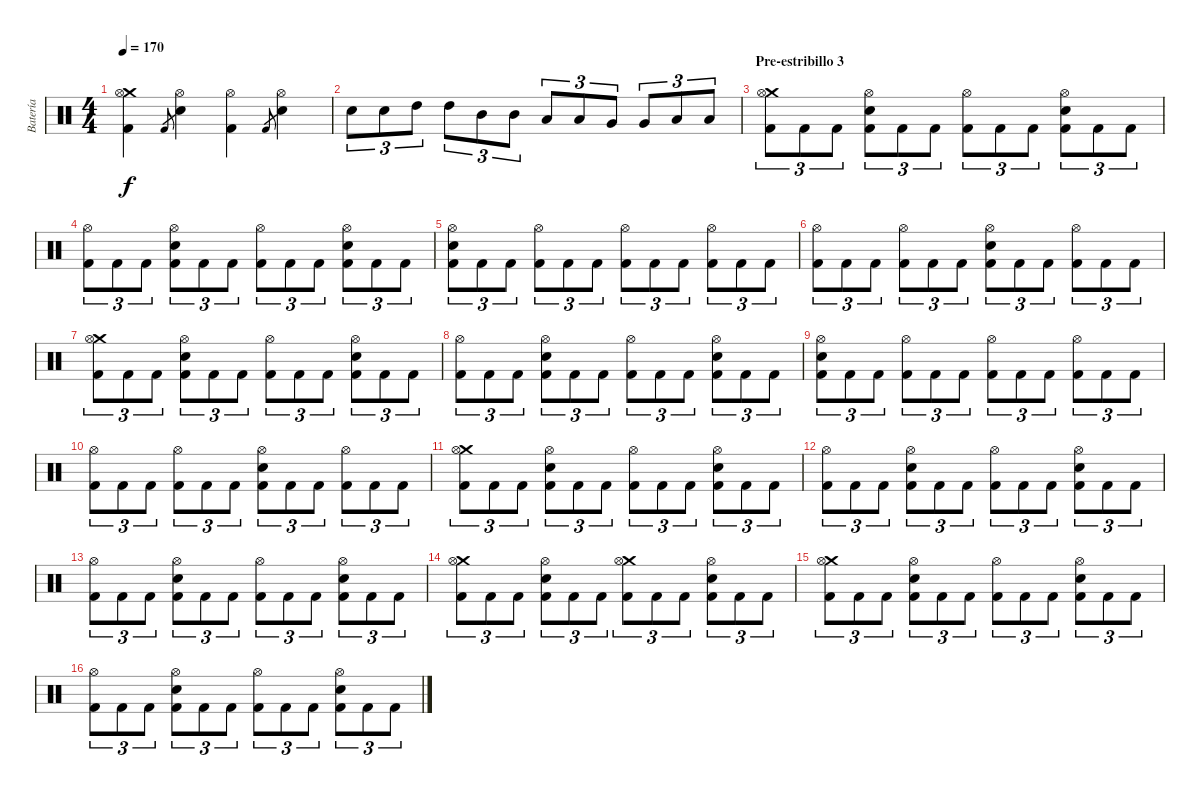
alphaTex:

\track ("Batería" "Batería") {instrument percussion}
\staff {score}
\articulation defaults
\ts (4 4)
\tempo 170
\clef neutral
\ks c
("Crash medium (hit)" "Hi-Hat (open)" "Kick (hit) 2").4{dy f} "Kick (hit) 2".8{gr} ("Hi-Hat (open)" "Snare (hit) 2").4 ("Hi-Hat (open)" "Kick (hit) 2").4 "Kick (hit) 2".8{gr} ("Hi-Hat (open)" "Snare (hit) 2").4 |
"Snare (hit) 2".8{tu (3 2)} "Snare (hit) 2".8{tu (3 2)} "High Tom (hit)".8{tu (3 2)} "High Tom (hit)".8{tu (3 2)} "Mid Tom (hit)".8{tu (3 2)} "Mid Tom (hit)".8{tu (3 2)} "Low Tom (hit)".8{tu (3 2)} "Low Tom (hit)".8{tu (3 2)} "Very Low Tom (hit)".8{tu (3 2)} "Very Low Tom (hit)".8{tu (3 2)} "Low Floor Tom (hit)".8{tu (3 2)} "Low Floor Tom (hit)".8{tu (3 2)} |
\section ("" "Pre-estribillo 3")
("Crash medium (hit)" "Hi-Hat (open)" "Kick (hit) 2").8{tu (3 2)} "Kick (hit) 2".8{tu (3 2)} "Kick (hit) 2".8{tu (3 2)} ("Hi-Hat (open)" "Snare (hit) 2" "Kick (hit) 2").8{tu (3 2)} "Kick (hit) 2".8{tu (3 2)} "Kick (hit) 2".8{tu (3 2)} ("Hi-Hat (open)" "Kick (hit) 2").8{tu (3 2)} "Kick (hit) 2".8{tu (3 2)} "Kick (hit) 2".8{tu (3 2)} ("Hi-Hat (open)" "Snare (hit) 2" "Kick (hit) 2").8{tu (3 2)} "Kick (hit) 2".8{tu (3 2)} "Kick (hit) 2".8{tu (3 2)} |
("Hi-Hat (open)" "Kick (hit) 2").8{tu (3 2)} "Kick (hit) 2".8{tu (3 2)} "Kick (hit) 2".8{tu (3 2)} ("Hi-Hat (open)" "Snare (hit) 2" "Kick (hit) 2").8{tu (3 2)} "Kick (hit) 2".8{tu (3 2)} "Kick (hit) 2".8{tu (3 2)} ("Hi-Hat (open)" "Kick (hit) 2").8{tu (3 2)} "Kick (hit) 2".8{tu (3 2)} "Kick (hit) 2".8{tu (3 2)} ("Hi-Hat (open)" "Snare (hit) 2" "Kick (hit) 2").8{tu (3 2)} "Kick (hit) 2".8{tu (3 2)} "Kick (hit) 2".8{tu (3 2)} |
("Hi-Hat (open)" "Snare (hit) 2" "Kick (hit) 2").8{tu (3 2)} "Kick (hit) 2".8{tu (3 2)} "Kick (hit) 2".8{tu (3 2)} ("Hi-Hat (open)" "Kick (hit) 2").8{tu (3 2)} "Kick (hit) 2".8{tu (3 2)} "Kick (hit) 2".8{tu (3 2)} ("Hi-Hat (open)" "Kick (hit) 2").8{tu (3 2)} "Kick (hit) 2".8{tu (3 2)} "Kick (hit) 2".8{tu (3 2)} ("Hi-Hat (open)" "Kick (hit) 2").8{tu (3 2)} "Kick (hit) 2".8{tu (3 2)} "Kick (hit) 2".8{tu (3 2)} |
("Hi-Hat (open)" "Kick (hit) 2").8{tu (3 2)} "Kick (hit) 2".8{tu (3 2)} "Kick (hit) 2".8{tu (3 2)} ("Hi-Hat (open)" "Kick (hit) 2").8{tu (3 2)} "Kick (hit) 2".8{tu (3 2)} "Kick (hit) 2".8{tu (3 2)} ("Hi-Hat (open)" "Snare (hit) 2" "Kick (hit) 2").8{tu (3 2)} "Kick (hit) 2".8{tu (3 2)} "Kick (hit) 2".8{tu (3 2)} ("Hi-Hat (open)" "Kick (hit) 2").8{tu (3 2)} "Kick (hit) 2".8{tu (3 2)} "Kick (hit) 2".8{tu (3 2)} |
("Crash medium (hit)" "Hi-Hat (open)" "Kick (hit) 2").8{tu (3 2)} "Kick (hit) 2".8{tu (3 2)} "Kick (hit) 2".8{tu (3 2)} ("Hi-Hat (open)" "Snare (hit) 2" "Kick (hit) 2").8{tu (3 2)} "Kick (hit) 2".8{tu (3 2)} "Kick (hit) 2".8{tu (3 2)} ("Hi-Hat (open)" "Kick (hit) 2").8{tu (3 2)} "Kick (hit) 2".8{tu (3 2)} "Kick (hit) 2".8{tu (3 2)} ("Hi-Hat (open)" "Snare (hit) 2" "Kick (hit) 2").8{tu (3 2)} "Kick (hit) 2".8{tu (3 2)} "Kick (hit) 2".8{tu (3 2)} |
("Hi-Hat (open)" "Kick (hit) 2").8{tu (3 2)} "Kick (hit) 2".8{tu (3 2)} "Kick (hit) 2".8{tu (3 2)} ("Hi-Hat (open)" "Snare (hit) 2" "Kick (hit) 2").8{tu (3 2)} "Kick (hit) 2".8{tu (3 2)} "Kick (hit) 2".8{tu (3 2)} ("Hi-Hat (open)" "Kick (hit) 2").8{tu (3 2)} "Kick (hit) 2".8{tu (3 2)} "Kick (hit) 2".8{tu (3 2)} ("Hi-Hat (open)" "Snare (hit) 2" "Kick (hit) 2").8{tu (3 2)} "Kick (hit) 2".8{tu (3 2)} "Kick (hit) 2".8{tu (3 2)} |
("Hi-Hat (open)" "Snare (hit) 2" "Kick (hit) 2").8{tu (3 2)} "Kick (hit) 2".8{tu (3 2)} "Kick (hit) 2".8{tu (3 2)} ("Hi-Hat (open)" "Kick (hit) 2").8{tu (3 2)} "Kick (hit) 2".8{tu (3 2)} "Kick (hit) 2".8{tu (3 2)} ("Hi-Hat (open)" "Kick (hit) 2").8{tu (3 2)} "Kick (hit) 2".8{tu (3 2)} "Kick (hit) 2".8{tu (3 2)} ("Hi-Hat (open)" "Kick (hit) 2").8{tu (3 2)} "Kick (hit) 2".8{tu (3 2)} "Kick (hit) 2".8{tu (3 2)} |
("Hi-Hat (open)" "Kick (hit) 2").8{tu (3 2)} "Kick (hit) 2".8{tu (3 2)} "Kick (hit) 2".8{tu (3 2)} ("Hi-Hat (open)" "Kick (hit) 2").8{tu (3 2)} "Kick (hit) 2".8{tu (3 2)} "Kick (hit) 2".8{tu (3 2)} ("Hi-Hat (open)" "Snare (hit) 2" "Kick (hit) 2").8{tu (3 2)} "Kick (hit) 2".8{tu (3 2)} "Kick (hit) 2".8{tu (3 2)} ("Hi-Hat (open)" "Kick (hit) 2").8{tu (3 2)} "Kick (hit) 2".8{tu (3 2)} "Kick (hit) 2".8{tu (3 2)} |
("Crash medium (hit)" "Hi-Hat (open)" "Kick (hit) 2").8{tu (3 2)} "Kick (hit) 2".8{tu (3 2)} "Kick (hit) 2".8{tu (3 2)} ("Hi-Hat (open)" "Snare (hit) 2" "Kick (hit) 2").8{tu (3 2)} "Kick (hit) 2".8{tu (3 2)} "Kick (hit) 2".8{tu (3 2)} ("Hi-Hat (open)" "Kick (hit) 2").8{tu (3 2)} "Kick (hit) 2".8{tu (3 2)} "Kick (hit) 2".8{tu (3 2)} ("Hi-Hat (open)" "Snare (hit) 2" "Kick (hit) 2").8{tu (3 2)} "Kick (hit) 2".8{tu (3 2)} "Kick (hit) 2".8{tu (3 2)} |
("Hi-Hat (open)" "Kick (hit) 2").8{tu (3 2)} "Kick (hit) 2".8{tu (3 2)} "Kick (hit) 2".8{tu (3 2)} ("Hi-Hat (open)" "Snare (hit) 2" "Kick (hit) 2").8{tu (3 2)} "Kick (hit) 2".8{tu (3 2)} "Kick (hit) 2".8{tu (3 2)} ("Hi-Hat (open)" "Kick (hit) 2").8{tu (3 2)} "Kick (hit) 2".8{tu (3 2)} "Kick (hit) 2".8{tu (3 2)} ("Hi-Hat (open)" "Snare (hit) 2" "Kick (hit) 2").8{tu (3 2)} "Kick (hit) 2".8{tu (3 2)} "Kick (hit) 2".8{tu (3 2)} |
("Hi-Hat (open)" "Kick (hit) 2").8{tu (3 2)} "Kick (hit) 2".8{tu (3 2)} "Kick (hit) 2".8{tu (3 2)} ("Hi-Hat (open)" "Snare (hit) 2" "Kick (hit) 2").8{tu (3 2)} "Kick (hit) 2".8{tu (3 2)} "Kick (hit) 2".8{tu (3 2)} ("Hi-Hat (open)" "Kick (hit) 2").8{tu (3 2)} "Kick (hit) 2".8{tu (3 2)} "Kick (hit) 2".8{tu (3 2)} ("Hi-Hat (open)" "Snare (hit) 2" "Kick (hit) 2").8{tu (3 2)} "Kick (hit) 2".8{tu (3 2)} "Kick (hit) 2".8{tu (3 2)} |
("Crash medium (hit)" "Hi-Hat (open)" "Kick (hit) 2").8{tu (3 2)} "Kick (hit) 2".8{tu (3 2)} "Kick (hit) 2".8{tu (3 2)} ("Hi-Hat (open)" "Snare (hit) 2" "Kick (hit) 2").8{tu (3 2)} "Kick (hit) 2".8{tu (3 2)} "Kick (hit) 2".8{tu (3 2)} ("Crash medium (hit)" "Hi-Hat (open)" "Kick (hit) 2").8{tu (3 2)} "Kick (hit) 2".8{tu (3 2)} "Kick (hit) 2".8{tu (3 2)} ("Hi-Hat (open)" "Snare (hit) 2" "Kick (hit) 2").8{tu (3 2)} "Kick (hit) 2".8{tu (3 2)} "Kick (hit) 2".8{tu (3 2)} |
("Crash medium (hit)" "Hi-Hat (open)" "Kick (hit) 2").8{tu (3 2)} "Kick (hit) 2".8{tu (3 2)} "Kick (hit) 2".8{tu (3 2)} ("Hi-Hat (open)" "Snare (hit) 2" "Kick (hit) 2").8{tu (3 2)} "Kick (hit) 2".8{tu (3 2)} "Kick (hit) 2".8{tu (3 2)} ("Hi-Hat (open)" "Kick (hit) 2").8{tu (3 2)} "Kick (hit) 2".8{tu (3 2)} "Kick (hit) 2".8{tu (3 2)} ("Hi-Hat (open)" "Snare (hit) 2" "Kick (hit) 2").8{tu (3 2)} "Kick (hit) 2".8{tu (3 2)} "Kick (hit) 2".8{tu (3 2)} |
("Hi-Hat (open)" "Kick (hit) 2").8{tu (3 2)} "Kick (hit) 2".8{tu (3 2)} "Kick (hit) 2".8{tu (3 2)} ("Hi-Hat (open)" "Snare (hit) 2" "Kick (hit) 2").8{tu (3 2)} "Kick (hit) 2".8{tu (3 2)} "Kick (hit) 2".8{tu (3 2)} ("Hi-Hat (open)" "Kick (hit) 2").8{tu (3 2)} "Kick (hit) 2".8{tu (3 2)} "Kick (hit) 2".8{tu (3 2)} ("Hi-Hat (open)" "Snare (hit) 2" "Kick (hit) 2").8{tu (3 2)} "Kick (hit) 2".8{tu (3 2)} "Kick (hit) 2".8{tu (3 2)}
